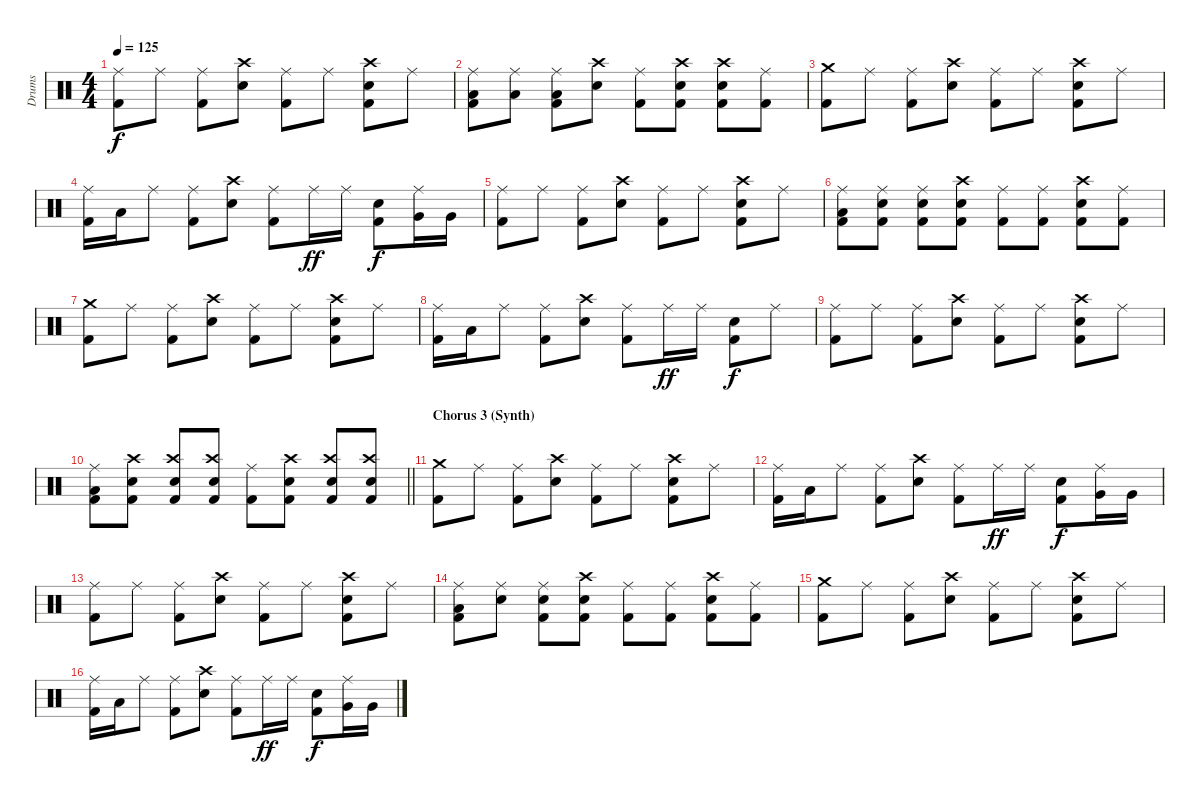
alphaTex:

\track ("Drums" "Drums") {instrument percussion}
\staff {score}
\articulation defaults
\ts (4 4)
\tempo 125
\clef neutral
\ks c
("Ride (middle)" "Kick (hit) 2").8{dy f} "Ride (middle)".8 ("Ride (middle)" "Kick (hit) 2").8 ("Crash high (hit)" "Electric Snare (hit)").8 ("Ride (middle)" "Kick (hit) 2").8 "Ride (middle)".8 ("Crash high (hit)" "Electric Snare (hit)" "Kick (hit) 2").8 "Ride (middle)".8 |
("Ride (middle)" "Low Tom (hit)" "Kick (hit) 2").8 ("Ride (middle)" "Low Tom (hit)").8 ("Ride (middle)" "Low Tom (hit)" "Kick (hit) 2").8 ("Crash high (hit)" "Electric Snare (hit)").8 ("Ride (middle)" "Kick (hit) 2").8 ("Crash high (hit)" "Electric Snare (hit)" "Kick (hit) 2").8 ("Crash high (hit)" "Electric Snare (hit)" "Kick (hit) 2").8 ("Ride (middle)" "Kick (hit) 2").8 |
("Crash medium (hit)" "Kick (hit) 2").8 "Ride (middle)".8 ("Ride (middle)" "Kick (hit) 2").8 ("Crash high (hit)" "Electric Snare (hit)").8 ("Ride (middle)" "Kick (hit) 2").8 "Ride (middle)".8 ("Crash high (hit)" "Electric Snare (hit)" "Kick (hit) 2").8 "Ride (middle)".8 |
("Ride (middle)" "Kick (hit) 2").16 "Low Tom (hit)".16 "Ride (middle)".8 ("Ride (middle)" "Kick (hit) 2").8 ("Crash high (hit)" "Electric Snare (hit)").8 ("Ride (middle)" "Kick (hit) 2").8 "Ride (middle)".16{dy ff} "Ride (middle)".16 ("Electric Snare (hit)" "Kick (hit) 2").8{dy f} ("Ride (middle)" "Very Low Tom (hit)").16 "Very Low Tom (hit)".16 |
("Ride (middle)" "Kick (hit) 2").8 "Ride (middle)".8 ("Ride (middle)" "Kick (hit) 2").8 ("Crash high (hit)" "Electric Snare (hit)").8 ("Ride (middle)" "Kick (hit) 2").8 "Ride (middle)".8 ("Crash high (hit)" "Electric Snare (hit)" "Kick (hit) 2").8 "Ride (middle)".8 |
("Ride (middle)" "Low Tom (hit)" "Kick (hit) 2").8 ("Ride (middle)" "Electric Snare (hit)" "Kick (hit) 2").8 ("Ride (middle)" "Electric Snare (hit)" "Kick (hit) 2").8 ("Crash high (hit)" "Electric Snare (hit)" "Kick (hit) 2").8 ("Ride (middle)" "Kick (hit) 2").8 ("Ride (middle)" "Kick (hit) 2").8 ("Crash high (hit)" "Electric Snare (hit)" "Kick (hit) 2").8 ("Ride (middle)" "Kick (hit) 2").8 |
("Crash medium (hit)" "Kick (hit) 2").8 "Ride (middle)".8 ("Ride (middle)" "Kick (hit) 2").8 ("Crash high (hit)" "Electric Snare (hit)").8 ("Ride (middle)" "Kick (hit) 2").8 "Ride (middle)".8 ("Crash high (hit)" "Electric Snare (hit)" "Kick (hit) 2").8 "Ride (middle)".8 |
("Ride (middle)" "Kick (hit) 2").16 "Low Tom (hit)".16 "Ride (middle)".8 ("Ride (middle)" "Kick (hit) 2").8 ("Crash high (hit)" "Electric Snare (hit)").8 ("Ride (middle)" "Kick (hit) 2").8 "Ride (middle)".16{dy ff} "Ride (middle)".16 ("Electric Snare (hit)" "Kick (hit) 2").8{dy f} "Ride (middle)".8 |
("Ride (middle)" "Kick (hit) 2").8 "Ride (middle)".8 ("Ride (middle)" "Kick (hit) 2").8 ("Crash high (hit)" "Electric Snare (hit)").8 ("Ride (middle)" "Kick (hit) 2").8 "Ride (middle)".8 ("Crash high (hit)" "Electric Snare (hit)" "Kick (hit) 2").8 "Ride (middle)".8 |
\barLineRight lightlight
("Ride (middle)" "Low Tom (hit)" "Kick (hit) 2").8 ("Crash high (hit)" "Electric Snare (hit)" "Kick (hit) 2").8 ("Crash high (hit)" "Electric Snare (hit)" "Kick (hit) 2").8 ("Crash high (hit)" "Electric Snare (hit)" "Kick (hit) 2").8 ("Ride (middle)" "Kick (hit) 2").8 ("Crash high (hit)" "Electric Snare (hit)" "Kick (hit) 2").8 ("Crash high (hit)" "Electric Snare (hit)" "Kick (hit) 2").8 ("Crash high (hit)" "Electric Snare (hit)" "Kick (hit) 2").8 |
\section ("" "Chorus 3 (Synth)")
("Crash medium (hit)" "Kick (hit) 2").8 "Ride (middle)".8 ("Ride (middle)" "Kick (hit) 2").8 ("Crash high (hit)" "Electric Snare (hit)").8 ("Ride (middle)" "Kick (hit) 2").8 "Ride (middle)".8 ("Crash high (hit)" "Electric Snare (hit)" "Kick (hit) 2").8 "Ride (middle)".8 |
("Ride (middle)" "Kick (hit) 2").16 "Low Tom (hit)".16 "Ride (middle)".8 ("Ride (middle)" "Kick (hit) 2").8 ("Crash high (hit)" "Electric Snare (hit)").8 ("Ride (middle)" "Kick (hit) 2").8 "Ride (middle)".16{dy ff} "Ride (middle)".16 ("Electric Snare (hit)" "Kick (hit) 2").8{dy f} ("Ride (middle)" "Very Low Tom (hit)").16 "Very Low Tom (hit)".16 |
("Ride (middle)" "Kick (hit) 2").8 "Ride (middle)".8 ("Ride (middle)" "Kick (hit) 2").8 ("Crash high (hit)" "Electric Snare (hit)").8 ("Ride (middle)" "Kick (hit) 2").8 "Ride (middle)".8 ("Crash high (hit)" "Electric Snare (hit)" "Kick (hit) 2").8 "Ride (middle)".8 |
("Ride (middle)" "Low Tom (hit)" "Kick (hit) 2").8 ("Ride (middle)" "Electric Snare (hit)").8 ("Ride (middle)" "Electric Snare (hit)" "Kick (hit) 2").8 ("Crash high (hit)" "Electric Snare (hit)" "Kick (hit) 2").8 ("Ride (middle)" "Kick (hit) 2").8 ("Ride (middle)" "Kick (hit) 2").8 ("Crash high (hit)" "Electric Snare (hit)" "Kick (hit) 2").8 ("Ride (middle)" "Kick (hit) 2").8 |
("Crash medium (hit)" "Kick (hit) 2").8 "Ride (middle)".8 ("Ride (middle)" "Kick (hit) 2").8 ("Crash high (hit)" "Electric Snare (hit)").8 ("Ride (middle)" "Kick (hit) 2").8 "Ride (middle)".8 ("Crash high (hit)" "Electric Snare (hit)" "Kick (hit) 2").8 "Ride (middle)".8 |
("Ride (middle)" "Kick (hit) 2").16 "Low Tom (hit)".16 "Ride (middle)".8 ("Ride (middle)" "Kick (hit) 2").8 ("Crash high (hit)" "Electric Snare (hit)").8 ("Ride (middle)" "Kick (hit) 2").8 "Ride (middle)".16{dy ff} "Ride (middle)".16 ("Electric Snare (hit)" "Kick (hit) 2").8{dy f} ("Ride (middle)" "Very Low Tom (hit)").16 "Very Low Tom (hit)".16
